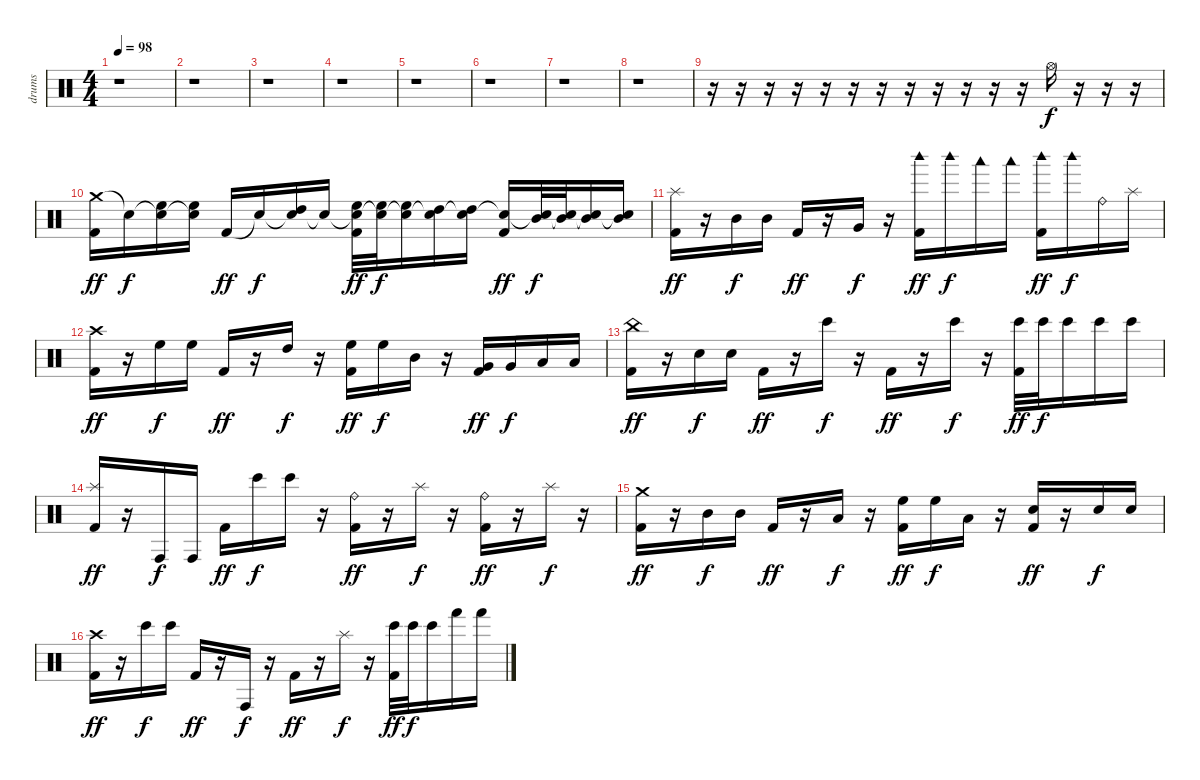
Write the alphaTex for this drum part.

\track ("drums" "drums") {instrument percussion}
\staff {score}
\articulation defaults
\ts (4 4)
\tempo 98
\clef neutral
\ks c
r.1{dy f} |
r.1 |
r.1 |
r.1 |
r.1 |
r.1 |
r.1 |
r.1 |
r.16 r.16 r.16 r.16 r.16 r.16 r.16 r.16 r.16 r.16 r.16 r.16 "Hi-Hat (open)".16 r.16 r.16 r.16 |
("Crash medium (hit)" "Kick (hit) 2").16{dy ff} "Snare (hit)"{t}.16{dy f} ("Snare (hit)"{t} "High Floor Tom (hit)").16 ("Snare (hit)"{t} "High Floor Tom (hit)").16 "Kick (hit) 2".16{dy ff} "Snare (hit)"{t}.16{dy f} ("Snare (hit)"{t} "High Tom (hit)").16 "Snare (hit)"{t}.16 ("Snare (hit)"{t} "High Floor Tom (hit)" "Kick (hit) 2").32{dy ff} ("Snare (hit)"{t} "High Floor Tom (hit)").32{dy f} ("Snare (hit)"{t} "High Floor Tom (hit)").16 ("Snare (hit)"{t} "High Tom (hit)").16 ("Snare (hit)"{t} "High Tom (hit)").16 ("Snare (hit)"{t} "Kick (hit) 2").16{dy ff} ("Snare (hit)"{t} "Mid Tom (hit)").32{dy f} ("Snare (hit)"{t} "Mid Tom (hit)").32 ("Snare (hit)"{t} "Mid Tom (hit)").16 ("Snare (hit)"{t} "Mid Tom (hit)").16 |
("Splash (hit)" "Kick (hit) 2").16{dy ff} r.16 "Mid Tom (hit)".16{dy f} "Mid Tom (hit)".16 "Kick (hit) 2".16{dy ff} r.16 "Very Low Tom (hit)".16{dy f} r.16 ("Woodblock high (hit)" "Kick (hit) 2").16{dy ff} "Woodblock high (hit)".16{dy f} "Woodblock low (hit)".16 "Woodblock low (hit)".16 ("Woodblock high (hit)" "Kick (hit) 2").16{dy ff} "Woodblock high (hit)".16{dy f} "Ride (bell)".16 "Splash (hit)".16 |
("Crash high (hit)" "Kick (hit) 2").16{dy ff} r.16 "High Floor Tom (hit)".16{dy f} "High Floor Tom (hit)".16 "Kick (hit) 2".16{dy ff} r.16 "High Tom (hit)".16{dy f} r.16 ("High Floor Tom (hit)" "Kick (hit) 2").16{dy ff} "High Floor Tom (hit)".16{dy f} "Mid Tom (hit)".16 r.16 ("Very Low Tom (hit)" "Kick (hit) 2").16{dy ff} "Very Low Tom (hit)".16{dy f} "Low Floor Tom (hit)".16 "Low Floor Tom (hit)".16 |
("China (hit)" "Kick (hit) 2").16{dy ff} r.16 "Electric Snare (hit)".16{dy f} "Electric Snare (hit)".16 "Kick (hit) 2".16{dy ff} r.16 "Bongo High (hit)".16{dy f} r.16 "Kick (hit) 2".16{dy ff} r.16 "Bongo High (hit)".16{dy f} r.16 ("Bongo High (hit)" "Kick (hit) 2").32{dy ff} "Bongo High (hit)".32{dy f} "Bongo High (hit)".16 "Bongo High (hit)".16 "Bongo High (hit)".16 |
("Splash (hit)" "Kick (hit) 2").16{dy ff} r.16 "Conga high (hit)".16{dy f} "Conga high (hit)".16 "Kick (hit) 2".16{dy ff} "Bongo High (hit)".16{dy f} "Bongo High (hit)".16 r.16 ("Ride (bell)" "Kick (hit) 2").16{dy ff} r.16 "Splash (hit)".16{dy f} r.16 ("Ride (bell)" "Kick (hit) 2").16{dy ff} r.16 "Splash (hit)".16{dy f} r.16 |
("Crash medium (hit)" "Kick (hit) 2").16{dy ff} r.16 "Mid Tom (hit)".16{dy f} "Mid Tom (hit)".16 "Kick (hit) 2".16{dy ff} r.16 "Low Tom (hit)".16{dy f} r.16 ("High Floor Tom (hit)" "Kick (hit) 2").16{dy ff} "High Floor Tom (hit)".16{dy f} "Low Tom (hit)".16 r.16 ("Electric Snare (hit)" "Kick (hit) 2").16{dy ff} r.16 "Electric Snare (hit)".16{dy f} "Electric Snare (hit)".16 |
("Crash high (hit)" "Kick (hit) 2").16{dy ff} r.16 "Bongo High (hit)".16{dy f} "Bongo High (hit)".16 "Kick (hit) 2".16{dy ff} r.16 "Conga high (hit)".16{dy f} r.16 "Kick (hit) 2".16{dy ff} r.16 "Splash (hit)".16{dy f} r.16 ("Bongo High (hit)" "Kick (hit) 2").32{dy ff} "Bongo High (hit)".32{dy f} "Bongo High (hit)".16 "Hand (hit)".16 "Hand (hit)".16
